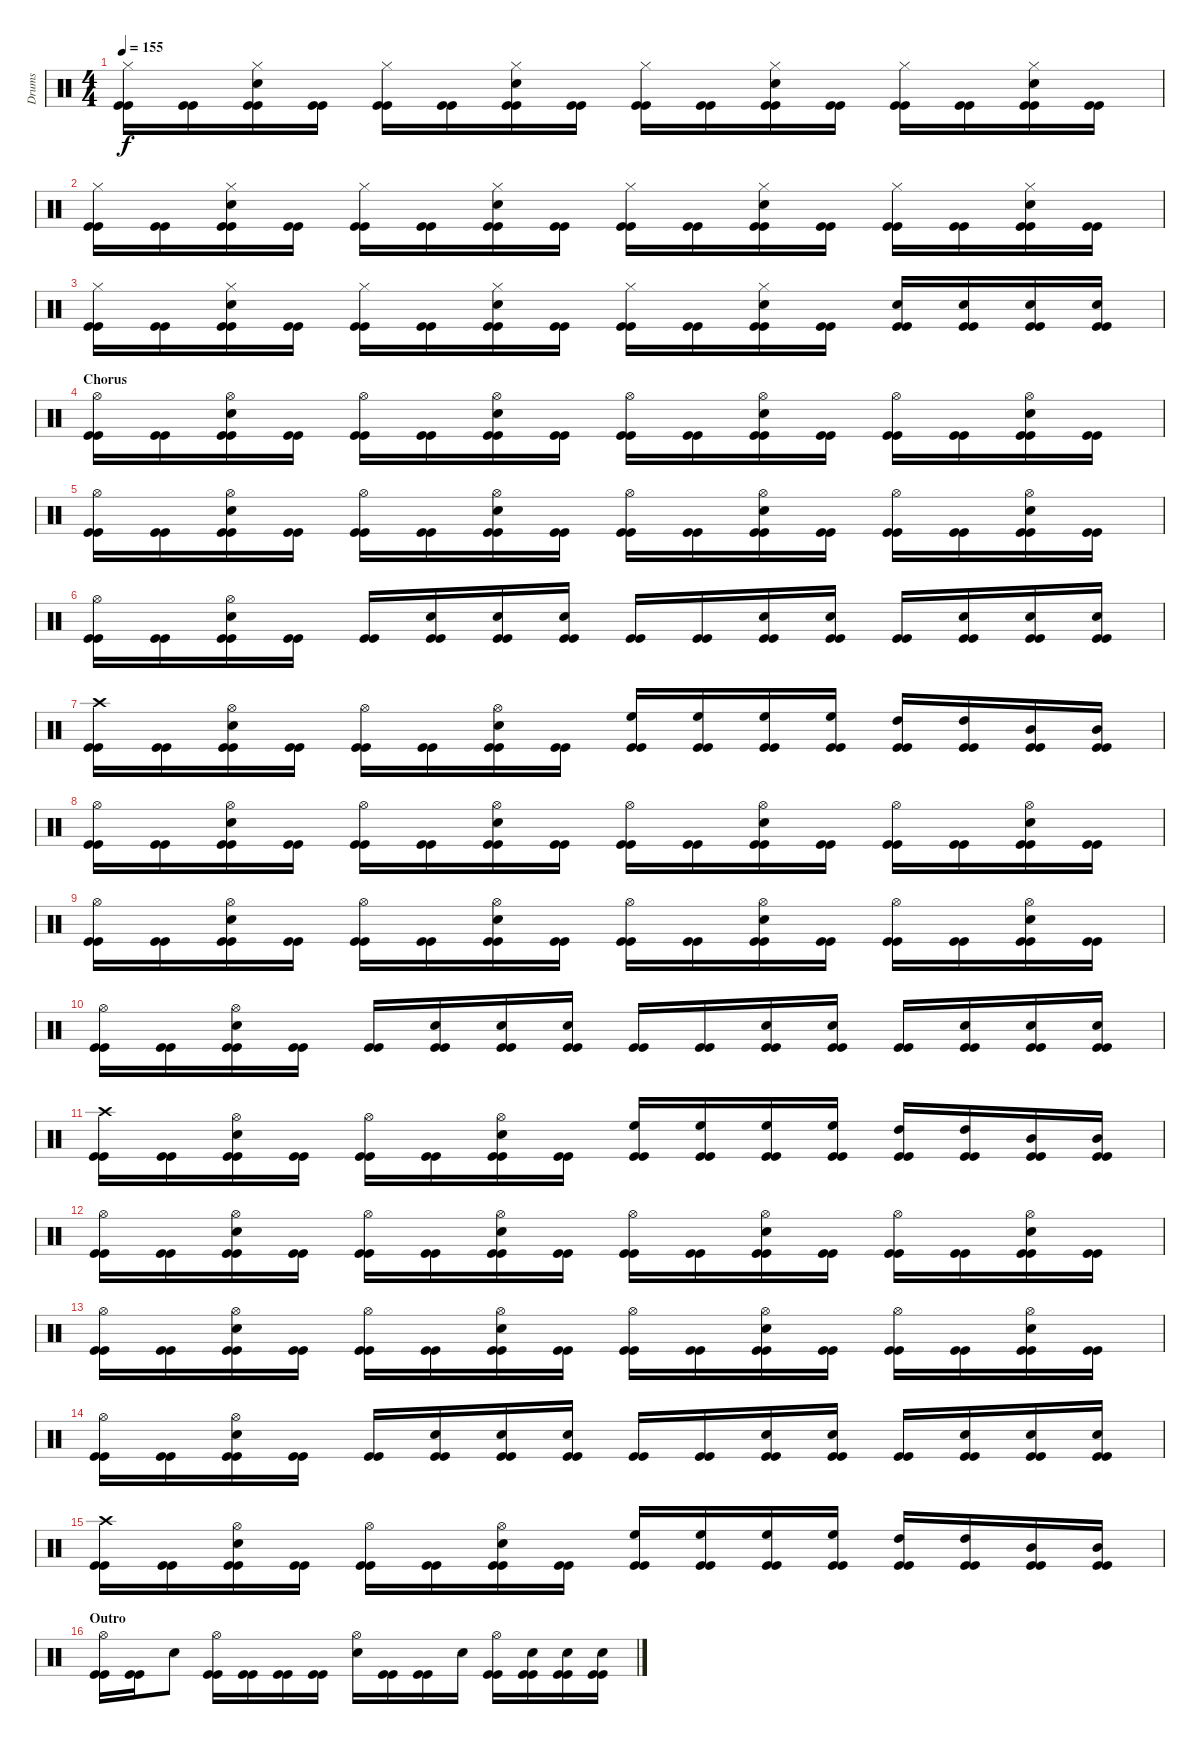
\track ("Drums" "Drums") {instrument percussion}
\staff {score}
\articulation defaults
\ts (4 4)
\tempo 155
\clef neutral
\ks c
("Hi-Hat (closed)" "Kick (hit)" "Kick (hit)").16{dy f} ("Kick (hit)" "Kick (hit)").16 ("Hi-Hat (closed)" "Snare (hit) 2" "Kick (hit)" "Kick (hit)").16 ("Kick (hit)" "Kick (hit)").16 ("Hi-Hat (closed)" "Kick (hit)" "Kick (hit)").16 ("Kick (hit)" "Kick (hit)").16 ("Hi-Hat (closed)" "Snare (hit) 2" "Kick (hit)" "Kick (hit)").16 ("Kick (hit)" "Kick (hit)").16 ("Hi-Hat (closed)" "Kick (hit)" "Kick (hit)").16 ("Kick (hit)" "Kick (hit)").16 ("Hi-Hat (closed)" "Snare (hit) 2" "Kick (hit)" "Kick (hit)").16 ("Kick (hit)" "Kick (hit)").16 ("Hi-Hat (closed)" "Kick (hit)" "Kick (hit)").16 ("Kick (hit)" "Kick (hit)").16 ("Hi-Hat (closed)" "Snare (hit) 2" "Kick (hit)" "Kick (hit)").16 ("Kick (hit)" "Kick (hit)").16 |
("Hi-Hat (closed)" "Kick (hit)" "Kick (hit)").16 ("Kick (hit)" "Kick (hit)").16 ("Hi-Hat (closed)" "Snare (hit) 2" "Kick (hit)" "Kick (hit)").16 ("Kick (hit)" "Kick (hit)").16 ("Hi-Hat (closed)" "Kick (hit)" "Kick (hit)").16 ("Kick (hit)" "Kick (hit)").16 ("Hi-Hat (closed)" "Snare (hit) 2" "Kick (hit)" "Kick (hit)").16 ("Kick (hit)" "Kick (hit)").16 ("Hi-Hat (closed)" "Kick (hit)" "Kick (hit)").16 ("Kick (hit)" "Kick (hit)").16 ("Hi-Hat (closed)" "Snare (hit) 2" "Kick (hit)" "Kick (hit)").16 ("Kick (hit)" "Kick (hit)").16 ("Hi-Hat (closed)" "Kick (hit)" "Kick (hit)").16 ("Kick (hit)" "Kick (hit)").16 ("Hi-Hat (closed)" "Snare (hit) 2" "Kick (hit)" "Kick (hit)").16 ("Kick (hit)" "Kick (hit)").16 |
("Hi-Hat (closed)" "Kick (hit)" "Kick (hit)").16 ("Kick (hit)" "Kick (hit)").16 ("Hi-Hat (closed)" "Snare (hit) 2" "Kick (hit)" "Kick (hit)").16 ("Kick (hit)" "Kick (hit)").16 ("Hi-Hat (closed)" "Kick (hit)" "Kick (hit)").16 ("Kick (hit)" "Kick (hit)").16 ("Hi-Hat (closed)" "Snare (hit) 2" "Kick (hit)" "Kick (hit)").16 ("Kick (hit)" "Kick (hit)").16 ("Hi-Hat (closed)" "Kick (hit)" "Kick (hit)").16 ("Kick (hit)" "Kick (hit)").16 ("Hi-Hat (closed)" "Snare (hit) 2" "Kick (hit)" "Kick (hit)").16 ("Kick (hit)" "Kick (hit)").16 ("Snare (hit) 2" "Kick (hit)" "Kick (hit)").16 ("Snare (hit) 2" "Kick (hit)" "Kick (hit)").16 ("Snare (hit) 2" "Kick (hit)" "Kick (hit)").16 ("Snare (hit) 2" "Kick (hit)" "Kick (hit)").16 |
\section ("" "Chorus")
("Hi-Hat (open)" "Kick (hit)" "Kick (hit)").16 ("Kick (hit)" "Kick (hit)").16 ("Hi-Hat (open)" "Electric Snare (hit)" "Kick (hit)" "Kick (hit)").16 ("Kick (hit)" "Kick (hit)").16 ("Hi-Hat (open)" "Kick (hit)" "Kick (hit)").16 ("Kick (hit)" "Kick (hit)").16 ("Hi-Hat (open)" "Electric Snare (hit)" "Kick (hit)" "Kick (hit)").16 ("Kick (hit)" "Kick (hit)").16 ("Hi-Hat (open)" "Kick (hit)" "Kick (hit)").16 ("Kick (hit)" "Kick (hit)").16 ("Hi-Hat (open)" "Electric Snare (hit)" "Kick (hit)" "Kick (hit)").16 ("Kick (hit)" "Kick (hit)").16 ("Hi-Hat (open)" "Kick (hit)" "Kick (hit)").16 ("Kick (hit)" "Kick (hit)").16 ("Hi-Hat (open)" "Electric Snare (hit)" "Kick (hit)" "Kick (hit)").16 ("Kick (hit)" "Kick (hit)").16 |
("Hi-Hat (open)" "Kick (hit)" "Kick (hit)").16 ("Kick (hit)" "Kick (hit)").16 ("Hi-Hat (open)" "Electric Snare (hit)" "Kick (hit)" "Kick (hit)").16 ("Kick (hit)" "Kick (hit)").16 ("Hi-Hat (open)" "Kick (hit)" "Kick (hit)").16 ("Kick (hit)" "Kick (hit)").16 ("Hi-Hat (open)" "Electric Snare (hit)" "Kick (hit)" "Kick (hit)").16 ("Kick (hit)" "Kick (hit)").16 ("Hi-Hat (open)" "Kick (hit)" "Kick (hit)").16 ("Kick (hit)" "Kick (hit)").16 ("Hi-Hat (open)" "Electric Snare (hit)" "Kick (hit)" "Kick (hit)").16 ("Kick (hit)" "Kick (hit)").16 ("Hi-Hat (open)" "Kick (hit)" "Kick (hit)").16 ("Kick (hit)" "Kick (hit)").16 ("Hi-Hat (open)" "Electric Snare (hit)" "Kick (hit)" "Kick (hit)").16 ("Kick (hit)" "Kick (hit)").16 |
("Hi-Hat (open)" "Kick (hit)" "Kick (hit)").16 ("Kick (hit)" "Kick (hit)").16 ("Hi-Hat (open)" "Electric Snare (hit)" "Kick (hit)" "Kick (hit)").16 ("Kick (hit)" "Kick (hit)").16 ("Kick (hit)" "Kick (hit)").16 ("Electric Snare (hit)" "Kick (hit)" "Kick (hit)").16 ("Electric Snare (hit)" "Kick (hit)" "Kick (hit)").16 ("Electric Snare (hit)" "Kick (hit)" "Kick (hit)").16 ("Kick (hit)" "Kick (hit)").16 ("Kick (hit)" "Kick (hit)").16 ("Electric Snare (hit)" "Kick (hit)" "Kick (hit)").16 ("Electric Snare (hit)" "Kick (hit)" "Kick (hit)").16 ("Kick (hit)" "Kick (hit)").16 ("Electric Snare (hit)" "Kick (hit)" "Kick (hit)").16 ("Electric Snare (hit)" "Kick (hit)" "Kick (hit)").16 ("Electric Snare (hit)" "Kick (hit)" "Kick (hit)").16 |
("Crash high (hit)" "Kick (hit)" "Kick (hit)").16 ("Kick (hit)" "Kick (hit)").16 ("Hi-Hat (open)" "Electric Snare (hit)" "Kick (hit)" "Kick (hit)").16 ("Kick (hit)" "Kick (hit)").16 ("Hi-Hat (open)" "Kick (hit)" "Kick (hit)").16 ("Kick (hit)" "Kick (hit)").16 ("Hi-Hat (open)" "Electric Snare (hit)" "Kick (hit)" "Kick (hit)").16 ("Kick (hit)" "Kick (hit)").16 ("High Floor Tom (hit)" "Kick (hit)" "Kick (hit)").16 ("High Floor Tom (hit)" "Kick (hit)" "Kick (hit)").16 ("High Floor Tom (hit)" "Kick (hit)" "Kick (hit)").16 ("High Floor Tom (hit)" "Kick (hit)" "Kick (hit)").16 ("High Tom (hit)" "Kick (hit)" "Kick (hit)").16 ("High Tom (hit)" "Kick (hit)" "Kick (hit)").16 ("Mid Tom (hit)" "Kick (hit)" "Kick (hit)").16 ("Mid Tom (hit)" "Kick (hit)" "Kick (hit)").16 |
("Hi-Hat (open)" "Kick (hit)" "Kick (hit)").16 ("Kick (hit)" "Kick (hit)").16 ("Hi-Hat (open)" "Electric Snare (hit)" "Kick (hit)" "Kick (hit)").16 ("Kick (hit)" "Kick (hit)").16 ("Hi-Hat (open)" "Kick (hit)" "Kick (hit)").16 ("Kick (hit)" "Kick (hit)").16 ("Hi-Hat (open)" "Electric Snare (hit)" "Kick (hit)" "Kick (hit)").16 ("Kick (hit)" "Kick (hit)").16 ("Hi-Hat (open)" "Kick (hit)" "Kick (hit)").16 ("Kick (hit)" "Kick (hit)").16 ("Hi-Hat (open)" "Electric Snare (hit)" "Kick (hit)" "Kick (hit)").16 ("Kick (hit)" "Kick (hit)").16 ("Hi-Hat (open)" "Kick (hit)" "Kick (hit)").16 ("Kick (hit)" "Kick (hit)").16 ("Hi-Hat (open)" "Electric Snare (hit)" "Kick (hit)" "Kick (hit)").16 ("Kick (hit)" "Kick (hit)").16 |
("Hi-Hat (open)" "Kick (hit)" "Kick (hit)").16 ("Kick (hit)" "Kick (hit)").16 ("Hi-Hat (open)" "Electric Snare (hit)" "Kick (hit)" "Kick (hit)").16 ("Kick (hit)" "Kick (hit)").16 ("Hi-Hat (open)" "Kick (hit)" "Kick (hit)").16 ("Kick (hit)" "Kick (hit)").16 ("Hi-Hat (open)" "Electric Snare (hit)" "Kick (hit)" "Kick (hit)").16 ("Kick (hit)" "Kick (hit)").16 ("Hi-Hat (open)" "Kick (hit)" "Kick (hit)").16 ("Kick (hit)" "Kick (hit)").16 ("Hi-Hat (open)" "Electric Snare (hit)" "Kick (hit)" "Kick (hit)").16 ("Kick (hit)" "Kick (hit)").16 ("Hi-Hat (open)" "Kick (hit)" "Kick (hit)").16 ("Kick (hit)" "Kick (hit)").16 ("Hi-Hat (open)" "Electric Snare (hit)" "Kick (hit)" "Kick (hit)").16 ("Kick (hit)" "Kick (hit)").16 |
("Hi-Hat (open)" "Kick (hit)" "Kick (hit)").16 ("Kick (hit)" "Kick (hit)").16 ("Hi-Hat (open)" "Electric Snare (hit)" "Kick (hit)" "Kick (hit)").16 ("Kick (hit)" "Kick (hit)").16 ("Kick (hit)" "Kick (hit)").16 ("Electric Snare (hit)" "Kick (hit)" "Kick (hit)").16 ("Electric Snare (hit)" "Kick (hit)" "Kick (hit)").16 ("Electric Snare (hit)" "Kick (hit)" "Kick (hit)").16 ("Kick (hit)" "Kick (hit)").16 ("Kick (hit)" "Kick (hit)").16 ("Electric Snare (hit)" "Kick (hit)" "Kick (hit)").16 ("Electric Snare (hit)" "Kick (hit)" "Kick (hit)").16 ("Kick (hit)" "Kick (hit)").16 ("Electric Snare (hit)" "Kick (hit)" "Kick (hit)").16 ("Electric Snare (hit)" "Kick (hit)" "Kick (hit)").16 ("Electric Snare (hit)" "Kick (hit)" "Kick (hit)").16 |
("Crash high (hit)" "Kick (hit)" "Kick (hit)").16 ("Kick (hit)" "Kick (hit)").16 ("Hi-Hat (open)" "Electric Snare (hit)" "Kick (hit)" "Kick (hit)").16 ("Kick (hit)" "Kick (hit)").16 ("Hi-Hat (open)" "Kick (hit)" "Kick (hit)").16 ("Kick (hit)" "Kick (hit)").16 ("Hi-Hat (open)" "Electric Snare (hit)" "Kick (hit)" "Kick (hit)").16 ("Kick (hit)" "Kick (hit)").16 ("High Floor Tom (hit)" "Kick (hit)" "Kick (hit)").16 ("High Floor Tom (hit)" "Kick (hit)" "Kick (hit)").16 ("High Floor Tom (hit)" "Kick (hit)" "Kick (hit)").16 ("High Floor Tom (hit)" "Kick (hit)" "Kick (hit)").16 ("High Tom (hit)" "Kick (hit)" "Kick (hit)").16 ("High Tom (hit)" "Kick (hit)" "Kick (hit)").16 ("Mid Tom (hit)" "Kick (hit)" "Kick (hit)").16 ("Mid Tom (hit)" "Kick (hit)" "Kick (hit)").16 |
("Hi-Hat (open)" "Kick (hit)" "Kick (hit)").16 ("Kick (hit)" "Kick (hit)").16 ("Hi-Hat (open)" "Electric Snare (hit)" "Kick (hit)" "Kick (hit)").16 ("Kick (hit)" "Kick (hit)").16 ("Hi-Hat (open)" "Kick (hit)" "Kick (hit)").16 ("Kick (hit)" "Kick (hit)").16 ("Hi-Hat (open)" "Electric Snare (hit)" "Kick (hit)" "Kick (hit)").16 ("Kick (hit)" "Kick (hit)").16 ("Hi-Hat (open)" "Kick (hit)" "Kick (hit)").16 ("Kick (hit)" "Kick (hit)").16 ("Hi-Hat (open)" "Electric Snare (hit)" "Kick (hit)" "Kick (hit)").16 ("Kick (hit)" "Kick (hit)").16 ("Hi-Hat (open)" "Kick (hit)" "Kick (hit)").16 ("Kick (hit)" "Kick (hit)").16 ("Hi-Hat (open)" "Electric Snare (hit)" "Kick (hit)" "Kick (hit)").16 ("Kick (hit)" "Kick (hit)").16 |
("Hi-Hat (open)" "Kick (hit)" "Kick (hit)").16 ("Kick (hit)" "Kick (hit)").16 ("Hi-Hat (open)" "Electric Snare (hit)" "Kick (hit)" "Kick (hit)").16 ("Kick (hit)" "Kick (hit)").16 ("Hi-Hat (open)" "Kick (hit)" "Kick (hit)").16 ("Kick (hit)" "Kick (hit)").16 ("Hi-Hat (open)" "Electric Snare (hit)" "Kick (hit)" "Kick (hit)").16 ("Kick (hit)" "Kick (hit)").16 ("Hi-Hat (open)" "Kick (hit)" "Kick (hit)").16 ("Kick (hit)" "Kick (hit)").16 ("Hi-Hat (open)" "Electric Snare (hit)" "Kick (hit)" "Kick (hit)").16 ("Kick (hit)" "Kick (hit)").16 ("Hi-Hat (open)" "Kick (hit)" "Kick (hit)").16 ("Kick (hit)" "Kick (hit)").16 ("Hi-Hat (open)" "Electric Snare (hit)" "Kick (hit)" "Kick (hit)").16 ("Kick (hit)" "Kick (hit)").16 |
("Hi-Hat (open)" "Kick (hit)" "Kick (hit)").16 ("Kick (hit)" "Kick (hit)").16 ("Hi-Hat (open)" "Electric Snare (hit)" "Kick (hit)" "Kick (hit)").16 ("Kick (hit)" "Kick (hit)").16 ("Kick (hit)" "Kick (hit)").16 ("Electric Snare (hit)" "Kick (hit)" "Kick (hit)").16 ("Electric Snare (hit)" "Kick (hit)" "Kick (hit)").16 ("Electric Snare (hit)" "Kick (hit)" "Kick (hit)").16 ("Kick (hit)" "Kick (hit)").16 ("Kick (hit)" "Kick (hit)").16 ("Electric Snare (hit)" "Kick (hit)" "Kick (hit)").16 ("Electric Snare (hit)" "Kick (hit)" "Kick (hit)").16 ("Kick (hit)" "Kick (hit)").16 ("Electric Snare (hit)" "Kick (hit)" "Kick (hit)").16 ("Electric Snare (hit)" "Kick (hit)" "Kick (hit)").16 ("Electric Snare (hit)" "Kick (hit)" "Kick (hit)").16 |
("Crash high (hit)" "Kick (hit)" "Kick (hit)").16 ("Kick (hit)" "Kick (hit)").16 ("Hi-Hat (open)" "Electric Snare (hit)" "Kick (hit)" "Kick (hit)").16 ("Kick (hit)" "Kick (hit)").16 ("Hi-Hat (open)" "Kick (hit)" "Kick (hit)").16 ("Kick (hit)" "Kick (hit)").16 ("Hi-Hat (open)" "Electric Snare (hit)" "Kick (hit)" "Kick (hit)").16 ("Kick (hit)" "Kick (hit)").16 ("High Floor Tom (hit)" "Kick (hit)" "Kick (hit)").16 ("High Floor Tom (hit)" "Kick (hit)" "Kick (hit)").16 ("High Floor Tom (hit)" "Kick (hit)" "Kick (hit)").16 ("High Floor Tom (hit)" "Kick (hit)" "Kick (hit)").16 ("High Tom (hit)" "Kick (hit)" "Kick (hit)").16 ("High Tom (hit)" "Kick (hit)" "Kick (hit)").16 ("Mid Tom (hit)" "Kick (hit)" "Kick (hit)").16 ("Mid Tom (hit)" "Kick (hit)" "Kick (hit)").16 |
\section ("" "Outro")
("Hi-Hat (open)" "Kick (hit)" "Kick (hit)").16 ("Kick (hit)" "Kick (hit)").16 "Electric Snare (hit)".8 ("Hi-Hat (open)" "Kick (hit)" "Kick (hit)").16 ("Kick (hit)" "Kick (hit)").16 ("Kick (hit)" "Kick (hit)").16 ("Kick (hit)" "Kick (hit)").16 ("Hi-Hat (open)" "Electric Snare (hit)").16 ("Kick (hit)" "Kick (hit)").16 ("Kick (hit)" "Kick (hit)").16 "Electric Snare (hit)".16 ("Hi-Hat (open)" "Kick (hit)" "Kick (hit)").16 ("Electric Snare (hit)" "Kick (hit)" "Kick (hit)").16 ("Electric Snare (hit)" "Kick (hit)" "Kick (hit)").16 ("Electric Snare (hit)" "Kick (hit)" "Kick (hit)").16
